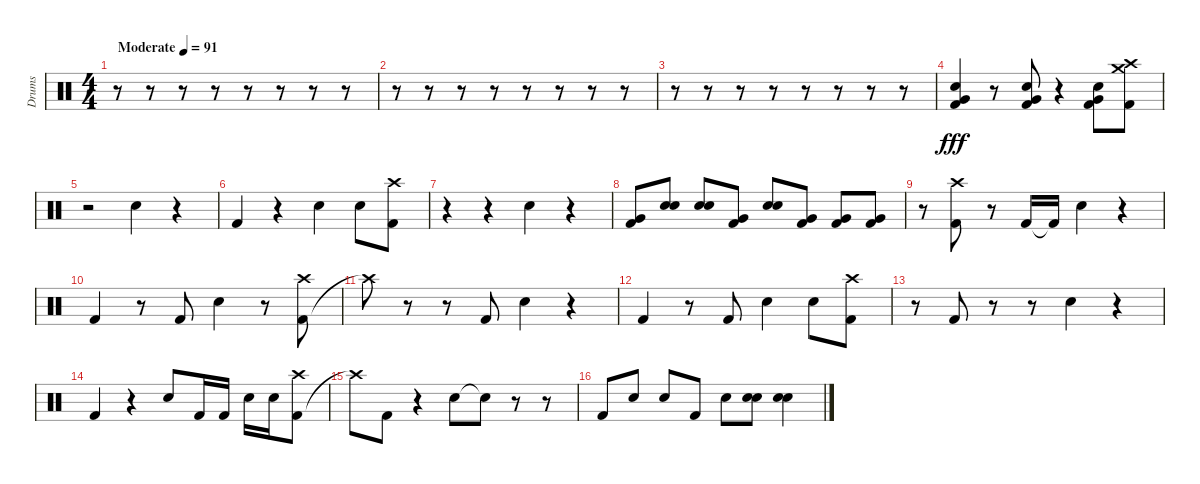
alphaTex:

\track ("Drums" "Drums") {instrument percussion}
\staff {score}
\articulation defaults
\ts (4 4)
\tempo (91 "Moderate")
\clef neutral
\ks c
r.8{dy fff} r.8 r.8 r.8 r.8 r.8 r.8 r.8 |
r.8 r.8 r.8 r.8 r.8 r.8 r.8 r.8 |
r.8 r.8 r.8 r.8 r.8 r.8 r.8 r.8 |
("Snare (hit) 2" "Kick (hit) 2" "Very Low Tom (hit)").4 r.8 ("Snare (hit) 2" "Kick (hit) 2" "Very Low Tom (hit)").8 r.4 ("Kick (hit) 2" "Snare (hit) 2" "Very Low Tom (hit)").8 ("Kick (hit) 2" "Crash high (hit)" "Crash medium (hit)").8 |
r.2 "Snare (hit) 2".4 r.4 |
"Kick (hit) 2".4 r.4 "Snare (hit) 2".4 "Snare (hit) 2".8 ("Kick (hit) 2" "Crash high (hit)").8 |
r.4 r.4 "Snare (hit) 2".4 r.4 |
("Kick (hit) 2" "Very Low Tom (hit)").8 ("Snare (hit) 2" "Hand Clap (hit)").8 ("Snare (hit) 2" "Hand Clap (hit)").8 ("Kick (hit) 2" "Very Low Tom (hit)").8 ("Snare (hit) 2" "Hand Clap (hit)").8 ("Kick (hit) 2" "Very Low Tom (hit)").8 ("Kick (hit) 2" "Very Low Tom (hit)").8 ("Kick (hit) 2" "Very Low Tom (hit)").8 |
r.8 ("Kick (hit) 2" "Crash high (hit)").8 r.8 "Kick (hit) 2".16 "Kick (hit) 2"{t}.16 "Snare (hit) 2".4 r.4 |
"Kick (hit) 2".4 r.8 "Kick (hit) 2".8 "Snare (hit) 2".4 r.8 ("Kick (hit) 2" "Crash high (hit)").8 |
"Crash high (hit)"{t}.8 r.8 r.8 "Kick (hit) 2".8 "Snare (hit) 2".4 r.4 |
"Kick (hit) 2".4 r.8 "Kick (hit) 2".8 "Snare (hit) 2".4 "Snare (hit) 2".8 ("Kick (hit) 2" "Crash high (hit)").8 |
r.8 "Kick (hit) 2".8 r.8 r.8 "Snare (hit) 2".4 r.4 |
"Kick (hit) 2".4 r.4 "Snare (hit) 2".8 "Kick (hit) 2".16 "Kick (hit) 2".16 "Snare (hit) 2".16 "Snare (hit) 2".16 ("Kick (hit) 2" "Crash high (hit)").8 |
"Crash high (hit)"{t}.8 "Kick (hit) 2".8 r.4 "Snare (hit) 2".8 "Snare (hit) 2"{t}.8 r.8 r.8 |
"Kick (hit) 2".8 "Snare (hit) 2".8 "Snare (hit) 2".8 "Kick (hit) 2".8 "Snare (hit) 2".8 ("Snare (hit) 2" "Hand Clap (hit)").8 ("Snare (hit) 2" "Hand Clap (hit)").4
